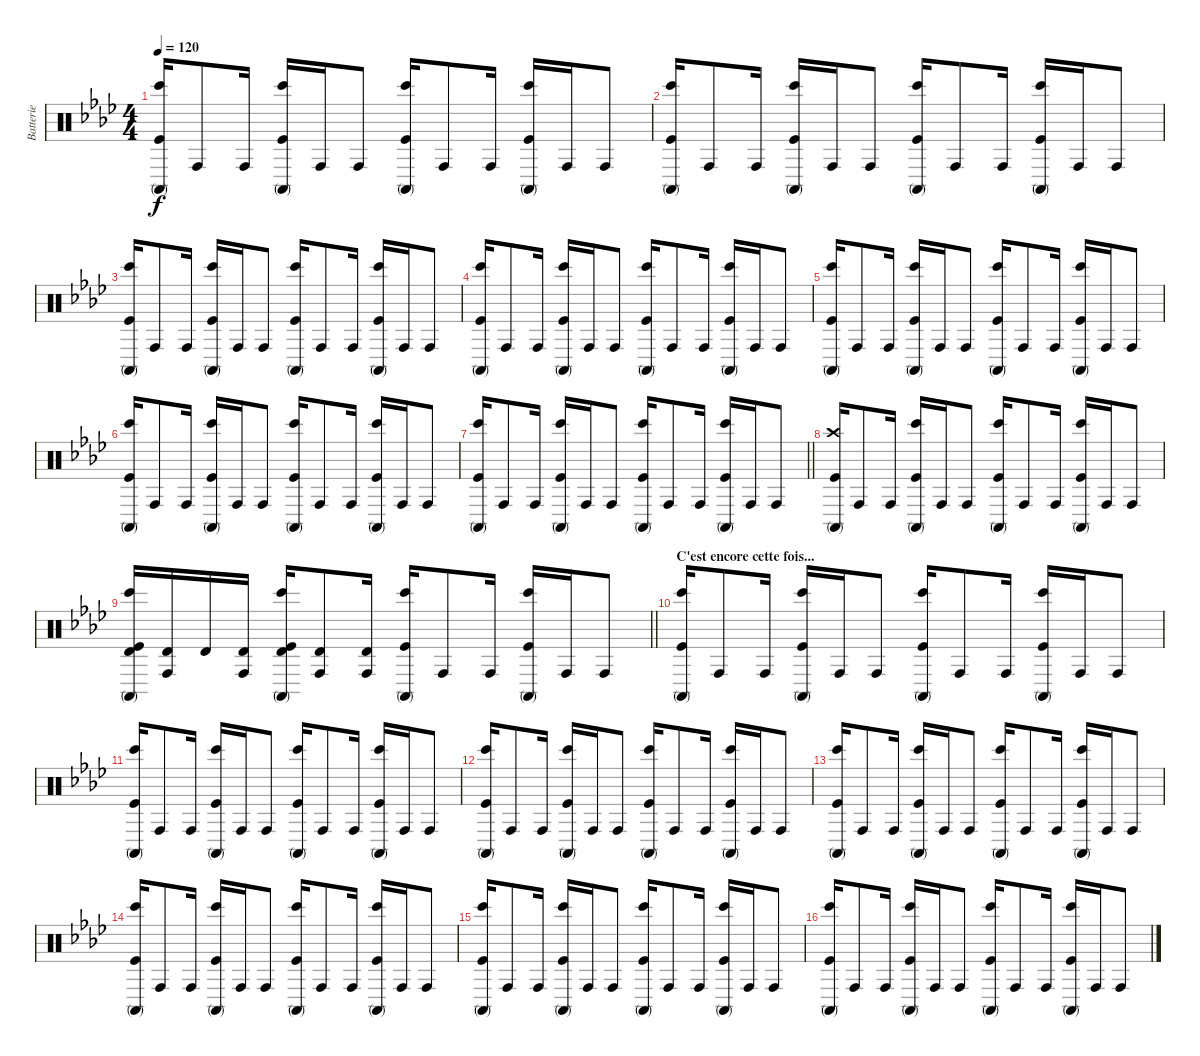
\track ("Batterie" "Batterie") {instrument percussion}
\staff {score}
\articulation defaults
\ts (4 4)
\tempo 120
\clef neutral
\ks fminor
("Bongo High (hit)" "Conga high (mute)" "Kick (hit)").16{dy f} "Conga high (hit)".8 "Conga high (hit)".16 ("Bongo High (hit)" "Conga high (mute)" "Kick (hit)").16 "Conga high (hit)".16 "Conga high (hit)".8 ("Bongo High (hit)" "Conga high (mute)" "Kick (hit)").16 "Conga high (hit)".8 "Conga high (hit)".16 ("Bongo High (hit)" "Conga high (mute)" "Kick (hit)").16 "Conga high (hit)".16 "Conga high (hit)".8 |
("Bongo High (hit)" "Conga high (mute)" "Kick (hit)").16 "Conga high (hit)".8 "Conga high (hit)".16 ("Bongo High (hit)" "Conga high (mute)" "Kick (hit)").16 "Conga high (hit)".16 "Conga high (hit)".8 ("Bongo High (hit)" "Conga high (mute)" "Kick (hit)").16 "Conga high (hit)".8 "Conga high (hit)".16 ("Bongo High (hit)" "Conga high (mute)" "Kick (hit)").16 "Conga high (hit)".16 "Conga high (hit)".8 |
("Bongo High (hit)" "Conga high (mute)" "Kick (hit)").16 "Conga high (hit)".8 "Conga high (hit)".16 ("Bongo High (hit)" "Conga high (mute)" "Kick (hit)").16 "Conga high (hit)".16 "Conga high (hit)".8 ("Bongo High (hit)" "Conga high (mute)" "Kick (hit)").16 "Conga high (hit)".8 "Conga high (hit)".16 ("Bongo High (hit)" "Conga high (mute)" "Kick (hit)").16 "Conga high (hit)".16 "Conga high (hit)".8 |
("Bongo High (hit)" "Conga high (mute)" "Kick (hit)").16 "Conga high (hit)".8 "Conga high (hit)".16 ("Bongo High (hit)" "Conga high (mute)" "Kick (hit)").16 "Conga high (hit)".16 "Conga high (hit)".8 ("Bongo High (hit)" "Conga high (mute)" "Kick (hit)").16 "Conga high (hit)".8 "Conga high (hit)".16 ("Bongo High (hit)" "Conga high (mute)" "Kick (hit)").16 "Conga high (hit)".16 "Conga high (hit)".8 |
("Bongo High (hit)" "Conga high (mute)" "Kick (hit)").16 "Conga high (hit)".8 "Conga high (hit)".16 ("Bongo High (hit)" "Conga high (mute)" "Kick (hit)").16 "Conga high (hit)".16 "Conga high (hit)".8 ("Bongo High (hit)" "Conga high (mute)" "Kick (hit)").16 "Conga high (hit)".8 "Conga high (hit)".16 ("Bongo High (hit)" "Conga high (mute)" "Kick (hit)").16 "Conga high (hit)".16 "Conga high (hit)".8 |
("Bongo High (hit)" "Conga high (mute)" "Kick (hit)").16 "Conga high (hit)".8 "Conga high (hit)".16 ("Bongo High (hit)" "Conga high (mute)" "Kick (hit)").16 "Conga high (hit)".16 "Conga high (hit)".8 ("Bongo High (hit)" "Conga high (mute)" "Kick (hit)").16 "Conga high (hit)".8 "Conga high (hit)".16 ("Bongo High (hit)" "Conga high (mute)" "Kick (hit)").16 "Conga high (hit)".16 "Conga high (hit)".8 |
\barLineRight lightlight
("Bongo High (hit)" "Conga high (mute)" "Kick (hit)").16 "Conga high (hit)".8 "Conga high (hit)".16 ("Bongo High (hit)" "Conga high (mute)" "Kick (hit)").16 "Conga high (hit)".16 "Conga high (hit)".8 ("Bongo High (hit)" "Conga high (mute)" "Kick (hit)").16 "Conga high (hit)".8 "Conga high (hit)".16 ("Bongo High (hit)" "Conga high (mute)" "Kick (hit)").16 "Conga high (hit)".16 "Conga high (hit)".8 |
("Crash high (hit)" "Conga high (mute)" "Kick (hit)").16 "Conga high (hit)".8 "Conga high (hit)".16 ("Bongo High (hit)" "Conga high (mute)" "Kick (hit)").16 "Conga high (hit)".16 "Conga high (hit)".8 ("Bongo High (hit)" "Conga high (mute)" "Kick (hit)").16 "Conga high (hit)".8 "Conga high (hit)".16 ("Bongo High (hit)" "Conga high (mute)" "Kick (hit)").16 "Conga high (hit)".16 "Conga high (hit)".8 |
\barLineRight lightlight
("Bongo High (hit)" "Conga high (mute)" "Timbale high (hit)" "Kick (hit)").16 ("Conga high (hit)" "Timbale high (hit)").16 "Timbale high (hit)".16 ("Conga high (hit)" "Timbale high (hit)").16 ("Bongo High (hit)" "Conga high (mute)" "Timbale high (hit)" "Kick (hit)").16 ("Conga high (hit)" "Timbale high (hit)").8 ("Conga high (hit)" "Timbale high (hit)").16 ("Bongo High (hit)" "Conga high (mute)" "Kick (hit)").16 "Conga high (hit)".8 "Conga high (hit)".16 ("Bongo High (hit)" "Conga high (mute)" "Kick (hit)").16 "Conga high (hit)".16 "Conga high (hit)".8 |
\section ("" "C'est encore cette fois...")
("Bongo High (hit)" "Conga high (mute)" "Kick (hit)").16 "Conga high (hit)".8 "Conga high (hit)".16 ("Bongo High (hit)" "Conga high (mute)" "Kick (hit)").16 "Conga high (hit)".16 "Conga high (hit)".8 ("Bongo High (hit)" "Conga high (mute)" "Kick (hit)").16 "Conga high (hit)".8 "Conga high (hit)".16 ("Bongo High (hit)" "Conga high (mute)" "Kick (hit)").16 "Conga high (hit)".16 "Conga high (hit)".8 |
("Bongo High (hit)" "Conga high (mute)" "Kick (hit)").16 "Conga high (hit)".8 "Conga high (hit)".16 ("Bongo High (hit)" "Conga high (mute)" "Kick (hit)").16 "Conga high (hit)".16 "Conga high (hit)".8 ("Bongo High (hit)" "Conga high (mute)" "Kick (hit)").16 "Conga high (hit)".8 "Conga high (hit)".16 ("Bongo High (hit)" "Conga high (mute)" "Kick (hit)").16 "Conga high (hit)".16 "Conga high (hit)".8 |
("Bongo High (hit)" "Conga high (mute)" "Kick (hit)").16 "Conga high (hit)".8 "Conga high (hit)".16 ("Bongo High (hit)" "Conga high (mute)" "Kick (hit)").16 "Conga high (hit)".16 "Conga high (hit)".8 ("Bongo High (hit)" "Conga high (mute)" "Kick (hit)").16 "Conga high (hit)".8 "Conga high (hit)".16 ("Bongo High (hit)" "Conga high (mute)" "Kick (hit)").16 "Conga high (hit)".16 "Conga high (hit)".8 |
("Bongo High (hit)" "Conga high (mute)" "Kick (hit)").16 "Conga high (hit)".8 "Conga high (hit)".16 ("Bongo High (hit)" "Conga high (mute)" "Kick (hit)").16 "Conga high (hit)".16 "Conga high (hit)".8 ("Bongo High (hit)" "Conga high (mute)" "Kick (hit)").16 "Conga high (hit)".8 "Conga high (hit)".16 ("Bongo High (hit)" "Conga high (mute)" "Kick (hit)").16 "Conga high (hit)".16 "Conga high (hit)".8 |
("Bongo High (hit)" "Conga high (mute)" "Kick (hit)").16 "Conga high (hit)".8 "Conga high (hit)".16 ("Bongo High (hit)" "Conga high (mute)" "Kick (hit)").16 "Conga high (hit)".16 "Conga high (hit)".8 ("Bongo High (hit)" "Conga high (mute)" "Kick (hit)").16 "Conga high (hit)".8 "Conga high (hit)".16 ("Bongo High (hit)" "Conga high (mute)" "Kick (hit)").16 "Conga high (hit)".16 "Conga high (hit)".8 |
("Bongo High (hit)" "Conga high (mute)" "Kick (hit)").16 "Conga high (hit)".8 "Conga high (hit)".16 ("Bongo High (hit)" "Conga high (mute)" "Kick (hit)").16 "Conga high (hit)".16 "Conga high (hit)".8 ("Bongo High (hit)" "Conga high (mute)" "Kick (hit)").16 "Conga high (hit)".8 "Conga high (hit)".16 ("Bongo High (hit)" "Conga high (mute)" "Kick (hit)").16 "Conga high (hit)".16 "Conga high (hit)".8 |
("Bongo High (hit)" "Conga high (mute)" "Kick (hit)").16 "Conga high (hit)".8 "Conga high (hit)".16 ("Bongo High (hit)" "Conga high (mute)" "Kick (hit)").16 "Conga high (hit)".16 "Conga high (hit)".8 ("Bongo High (hit)" "Conga high (mute)" "Kick (hit)").16 "Conga high (hit)".8 "Conga high (hit)".16 ("Bongo High (hit)" "Conga high (mute)" "Kick (hit)").16 "Conga high (hit)".16 "Conga high (hit)".8
